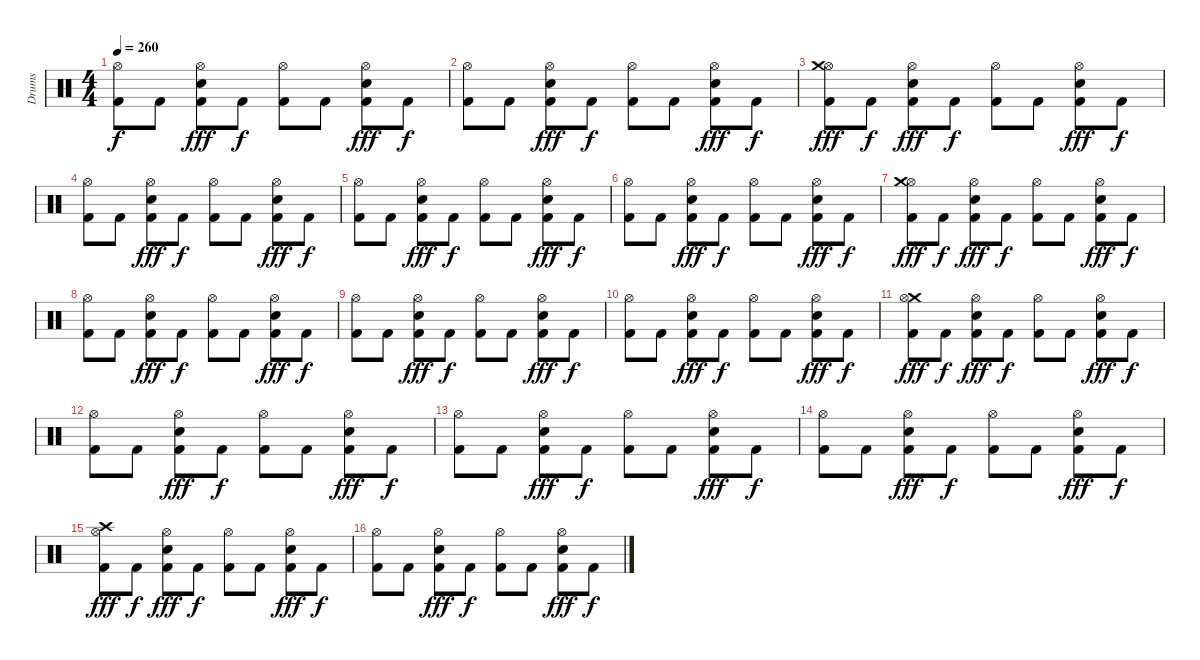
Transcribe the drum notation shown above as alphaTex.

\track ("Drums" "Drums") {instrument percussion}
\staff {score}
\articulation defaults
\ts (4 4)
\tempo 260
\clef neutral
\ks c
("Hi-Hat (open)" "Kick (hit) 2").8{dy f} "Kick (hit) 2".8 ("Hi-Hat (open)" "Snare (hit) 2" "Kick (hit) 2").8{dy fff} "Kick (hit) 2".8{dy f} ("Hi-Hat (open)" "Kick (hit) 2").8 "Kick (hit) 2".8 ("Hi-Hat (open)" "Snare (hit) 2" "Kick (hit) 2").8{dy fff} "Kick (hit) 2".8{dy f} |
("Hi-Hat (open)" "Kick (hit) 2").8 "Kick (hit) 2".8 ("Hi-Hat (open)" "Snare (hit) 2" "Kick (hit) 2").8{dy fff} "Kick (hit) 2".8{dy f} ("Hi-Hat (open)" "Kick (hit) 2").8 "Kick (hit) 2".8 ("Hi-Hat (open)" "Snare (hit) 2" "Kick (hit) 2").8{dy fff} "Kick (hit) 2".8{dy f} |
("Hi-Hat (open)" "Kick (hit) 2" "Crash medium (hit)").8{dy fff} "Kick (hit) 2".8{dy f} ("Hi-Hat (open)" "Snare (hit) 2" "Kick (hit) 2").8{dy fff} "Kick (hit) 2".8{dy f} ("Hi-Hat (open)" "Kick (hit) 2").8 "Kick (hit) 2".8 ("Hi-Hat (open)" "Snare (hit) 2" "Kick (hit) 2").8{dy fff} "Kick (hit) 2".8{dy f} |
("Hi-Hat (open)" "Kick (hit) 2").8 "Kick (hit) 2".8 ("Hi-Hat (open)" "Snare (hit) 2" "Kick (hit) 2").8{dy fff} "Kick (hit) 2".8{dy f} ("Hi-Hat (open)" "Kick (hit) 2").8 "Kick (hit) 2".8 ("Hi-Hat (open)" "Snare (hit) 2" "Kick (hit) 2").8{dy fff} "Kick (hit) 2".8{dy f} |
("Hi-Hat (open)" "Kick (hit) 2").8 "Kick (hit) 2".8 ("Hi-Hat (open)" "Snare (hit) 2" "Kick (hit) 2").8{dy fff} "Kick (hit) 2".8{dy f} ("Hi-Hat (open)" "Kick (hit) 2").8 "Kick (hit) 2".8 ("Hi-Hat (open)" "Snare (hit) 2" "Kick (hit) 2").8{dy fff} "Kick (hit) 2".8{dy f} |
("Hi-Hat (open)" "Kick (hit) 2").8 "Kick (hit) 2".8 ("Hi-Hat (open)" "Snare (hit) 2" "Kick (hit) 2").8{dy fff} "Kick (hit) 2".8{dy f} ("Hi-Hat (open)" "Kick (hit) 2").8 "Kick (hit) 2".8 ("Hi-Hat (open)" "Snare (hit) 2" "Kick (hit) 2").8{dy fff} "Kick (hit) 2".8{dy f} |
("Hi-Hat (open)" "Kick (hit) 2" "Crash medium (hit)").8{dy fff} "Kick (hit) 2".8{dy f} ("Hi-Hat (open)" "Snare (hit) 2" "Kick (hit) 2").8{dy fff} "Kick (hit) 2".8{dy f} ("Hi-Hat (open)" "Kick (hit) 2").8 "Kick (hit) 2".8 ("Hi-Hat (open)" "Snare (hit) 2" "Kick (hit) 2").8{dy fff} "Kick (hit) 2".8{dy f} |
("Hi-Hat (open)" "Kick (hit) 2").8 "Kick (hit) 2".8 ("Hi-Hat (open)" "Snare (hit) 2" "Kick (hit) 2").8{dy fff} "Kick (hit) 2".8{dy f} ("Hi-Hat (open)" "Kick (hit) 2").8 "Kick (hit) 2".8 ("Hi-Hat (open)" "Snare (hit) 2" "Kick (hit) 2").8{dy fff} "Kick (hit) 2".8{dy f} |
("Hi-Hat (open)" "Kick (hit) 2").8 "Kick (hit) 2".8 ("Hi-Hat (open)" "Snare (hit) 2" "Kick (hit) 2").8{dy fff} "Kick (hit) 2".8{dy f} ("Hi-Hat (open)" "Kick (hit) 2").8 "Kick (hit) 2".8 ("Hi-Hat (open)" "Snare (hit) 2" "Kick (hit) 2").8{dy fff} "Kick (hit) 2".8{dy f} |
("Hi-Hat (open)" "Kick (hit) 2").8 "Kick (hit) 2".8 ("Hi-Hat (open)" "Snare (hit) 2" "Kick (hit) 2").8{dy fff} "Kick (hit) 2".8{dy f} ("Hi-Hat (open)" "Kick (hit) 2").8 "Kick (hit) 2".8 ("Hi-Hat (open)" "Snare (hit) 2" "Kick (hit) 2").8{dy fff} "Kick (hit) 2".8{dy f} |
("Crash medium (hit)" "Hi-Hat (open)" "Kick (hit) 2").8{dy fff} "Kick (hit) 2".8{dy f} ("Hi-Hat (open)" "Snare (hit) 2" "Kick (hit) 2").8{dy fff} "Kick (hit) 2".8{dy f} ("Hi-Hat (open)" "Kick (hit) 2").8 "Kick (hit) 2".8 ("Hi-Hat (open)" "Snare (hit) 2" "Kick (hit) 2").8{dy fff} "Kick (hit) 2".8{dy f} |
("Hi-Hat (open)" "Kick (hit) 2").8 "Kick (hit) 2".8 ("Hi-Hat (open)" "Snare (hit) 2" "Kick (hit) 2").8{dy fff} "Kick (hit) 2".8{dy f} ("Hi-Hat (open)" "Kick (hit) 2").8 "Kick (hit) 2".8 ("Hi-Hat (open)" "Snare (hit) 2" "Kick (hit) 2").8{dy fff} "Kick (hit) 2".8{dy f} |
("Hi-Hat (open)" "Kick (hit) 2").8 "Kick (hit) 2".8 ("Hi-Hat (open)" "Snare (hit) 2" "Kick (hit) 2").8{dy fff} "Kick (hit) 2".8{dy f} ("Hi-Hat (open)" "Kick (hit) 2").8 "Kick (hit) 2".8 ("Hi-Hat (open)" "Snare (hit) 2" "Kick (hit) 2").8{dy fff} "Kick (hit) 2".8{dy f} |
("Hi-Hat (open)" "Kick (hit) 2").8 "Kick (hit) 2".8 ("Hi-Hat (open)" "Snare (hit) 2" "Kick (hit) 2").8{dy fff} "Kick (hit) 2".8{dy f} ("Hi-Hat (open)" "Kick (hit) 2").8 "Kick (hit) 2".8 ("Hi-Hat (open)" "Snare (hit) 2" "Kick (hit) 2").8{dy fff} "Kick (hit) 2".8{dy f} |
("Crash high (hit)" "Hi-Hat (open)" "Kick (hit) 2").8{dy fff} "Kick (hit) 2".8{dy f} ("Hi-Hat (open)" "Snare (hit) 2" "Kick (hit) 2").8{dy fff} "Kick (hit) 2".8{dy f} ("Hi-Hat (open)" "Kick (hit) 2").8 "Kick (hit) 2".8 ("Hi-Hat (open)" "Snare (hit) 2" "Kick (hit) 2").8{dy fff} "Kick (hit) 2".8{dy f} |
("Hi-Hat (open)" "Kick (hit) 2").8 "Kick (hit) 2".8 ("Hi-Hat (open)" "Snare (hit) 2" "Kick (hit) 2").8{dy fff} "Kick (hit) 2".8{dy f} ("Hi-Hat (open)" "Kick (hit) 2").8 "Kick (hit) 2".8 ("Hi-Hat (open)" "Snare (hit) 2" "Kick (hit) 2").8{dy fff} "Kick (hit) 2".8{dy f}
